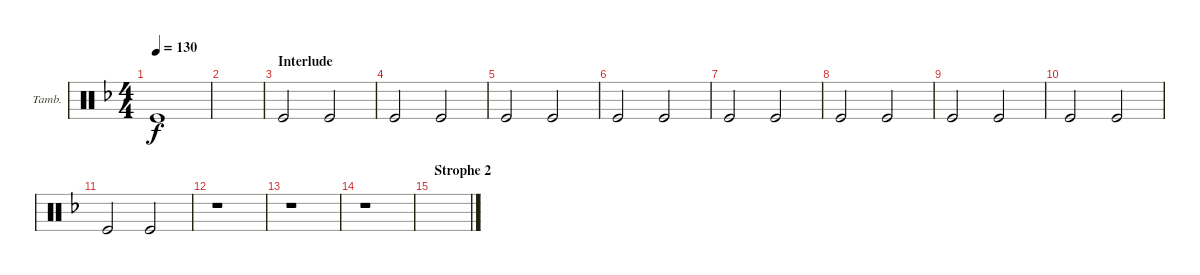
\defaultSystemsLayout 4
\bracketExtendMode groupsimilarinstruments
\firstSystemTrackNameOrientation horizontal
\otherSystemsTrackNameOrientation horizontal
\track ("Tambourine" "Tamb.") {instrument percussion}
\staff {score}
\articulation defaults
\ts (4 4)
\tempo 130
\clef neutral
\ks dminor "Kick (hit)".1{dy f}
|
|
\section ("" "Interlude")
"Kick (hit)".2 "Kick (hit)".2 |
"Kick (hit)".2 "Kick (hit)".2 |
"Kick (hit)".2 "Kick (hit)".2 |
"Kick (hit)".2 "Kick (hit)".2 |
"Kick (hit)".2 "Kick (hit)".2 |
"Kick (hit)".2 "Kick (hit)".2 |
"Kick (hit)".2 "Kick (hit)".2 |
"Kick (hit)".2 "Kick (hit)".2 |
"Kick (hit)".2 "Kick (hit)".2 |
r.1 |
r.1 |
r.1 |
\section ("" "Strophe 2")
